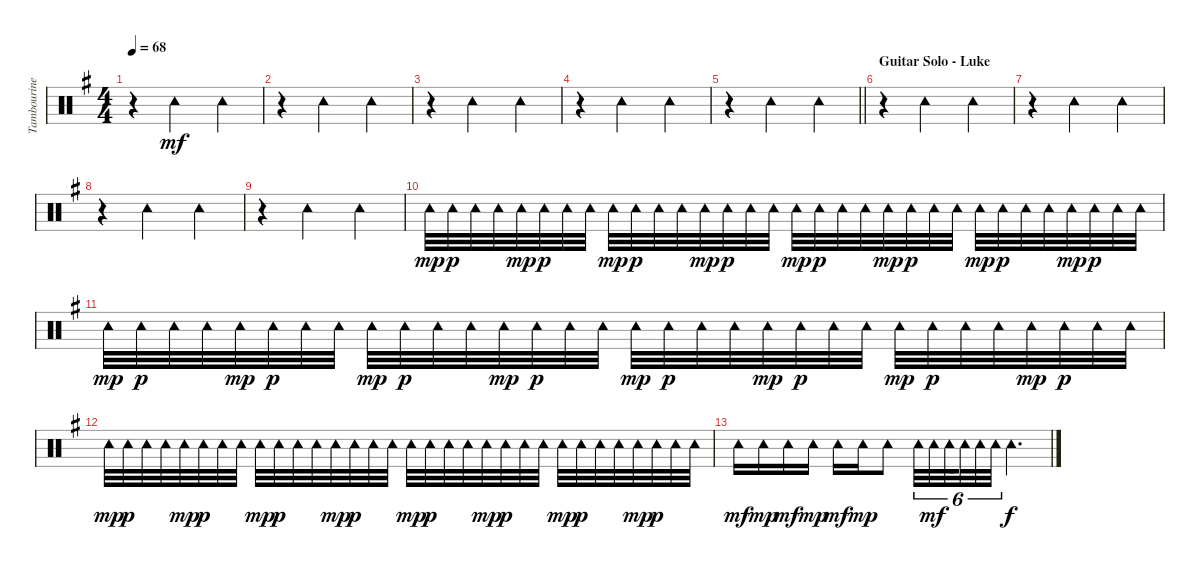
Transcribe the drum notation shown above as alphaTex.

\track ("Tambourine" "Tambourine") {instrument percussion}
\staff {score}
\articulation defaults
\ts (4 4)
\tempo 68
\clef neutral
\ks g
r.4{dy mf} "Tambourine (hit)".2 "Tambourine (hit)".4 |
r.4 "Tambourine (hit)".2 "Tambourine (hit)".4 |
r.4 "Tambourine (hit)".2 "Tambourine (hit)".4 |
r.4 "Tambourine (hit)".2 "Tambourine (hit)".4 |
\barLineRight lightlight
r.4 "Tambourine (hit)".2 "Tambourine (hit)".4 |
\section ("" "Guitar Solo - Luke")
r.4 "Tambourine (hit)".2 "Tambourine (hit)".4 |
r.4 "Tambourine (hit)".2 "Tambourine (hit)".4 |
r.4 "Tambourine (hit)".2 "Tambourine (hit)".4 |
r.4 "Tambourine (hit)".2 "Tambourine (hit)".4 |
"Tambourine (hit)".32{dy mp} "Tambourine (hit)".32{dy p} "Tambourine (hit)".32 "Tambourine (hit)".32 "Tambourine (hit)".32{dy mp} "Tambourine (hit)".32{dy p} "Tambourine (hit)".32 "Tambourine (hit)".32 "Tambourine (hit)".32{dy mp} "Tambourine (hit)".32{dy p} "Tambourine (hit)".32 "Tambourine (hit)".32 "Tambourine (hit)".32{dy mp} "Tambourine (hit)".32{dy p} "Tambourine (hit)".32 "Tambourine (hit)".32 "Tambourine (hit)".32{dy mp} "Tambourine (hit)".32{dy p} "Tambourine (hit)".32 "Tambourine (hit)".32 "Tambourine (hit)".32{dy mp} "Tambourine (hit)".32{dy p} "Tambourine (hit)".32 "Tambourine (hit)".32 "Tambourine (hit)".32{dy mp} "Tambourine (hit)".32{dy p} "Tambourine (hit)".32 "Tambourine (hit)".32 "Tambourine (hit)".32{dy mp} "Tambourine (hit)".32{dy p} "Tambourine (hit)".32 "Tambourine (hit)".32 |
"Tambourine (hit)".32{dy mp} "Tambourine (hit)".32{dy p} "Tambourine (hit)".32 "Tambourine (hit)".32 "Tambourine (hit)".32{dy mp} "Tambourine (hit)".32{dy p} "Tambourine (hit)".32 "Tambourine (hit)".32 "Tambourine (hit)".32{dy mp} "Tambourine (hit)".32{dy p} "Tambourine (hit)".32 "Tambourine (hit)".32 "Tambourine (hit)".32{dy mp} "Tambourine (hit)".32{dy p} "Tambourine (hit)".32 "Tambourine (hit)".32 "Tambourine (hit)".32{dy mp} "Tambourine (hit)".32{dy p} "Tambourine (hit)".32 "Tambourine (hit)".32 "Tambourine (hit)".32{dy mp} "Tambourine (hit)".32{dy p} "Tambourine (hit)".32 "Tambourine (hit)".32 "Tambourine (hit)".32{dy mp} "Tambourine (hit)".32{dy p} "Tambourine (hit)".32 "Tambourine (hit)".32 "Tambourine (hit)".32{dy mp} "Tambourine (hit)".32{dy p} "Tambourine (hit)".32 "Tambourine (hit)".32 |
"Tambourine (hit)".32{dy mp} "Tambourine (hit)".32{dy p} "Tambourine (hit)".32 "Tambourine (hit)".32 "Tambourine (hit)".32{dy mp} "Tambourine (hit)".32{dy p} "Tambourine (hit)".32 "Tambourine (hit)".32 "Tambourine (hit)".32{dy mp} "Tambourine (hit)".32{dy p} "Tambourine (hit)".32 "Tambourine (hit)".32 "Tambourine (hit)".32{dy mp} "Tambourine (hit)".32{dy p} "Tambourine (hit)".32 "Tambourine (hit)".32 "Tambourine (hit)".32{dy mp} "Tambourine (hit)".32{dy p} "Tambourine (hit)".32 "Tambourine (hit)".32 "Tambourine (hit)".32{dy mp} "Tambourine (hit)".32{dy p} "Tambourine (hit)".32 "Tambourine (hit)".32 "Tambourine (hit)".32{dy mp} "Tambourine (hit)".32{dy p} "Tambourine (hit)".32 "Tambourine (hit)".32 "Tambourine (hit)".32{dy mp} "Tambourine (hit)".32{dy p} "Tambourine (hit)".32 "Tambourine (hit)".32 |
"Tambourine (hit)".16{dy mf} "Tambourine (hit)".16{dy mp} "Tambourine (hit)".16{dy mf} "Tambourine (hit)".16{dy mp} "Tambourine (hit)".16{dy mf} "Tambourine (hit)".16{dy mp} "Tambourine (hit)".8 "Tambourine (hit)".32{tu (6 4)} "Tambourine (hit)".32{tu (6 4) dy mf} "Tambourine (hit)".32{tu (6 4) beam splitsecondary} "Tambourine (hit)".32{tu (6 4)} "Tambourine (hit)".32{tu (6 4)} "Tambourine (hit)".32{tu (6 4)} "Tambourine (hit)".4{d dy f}
